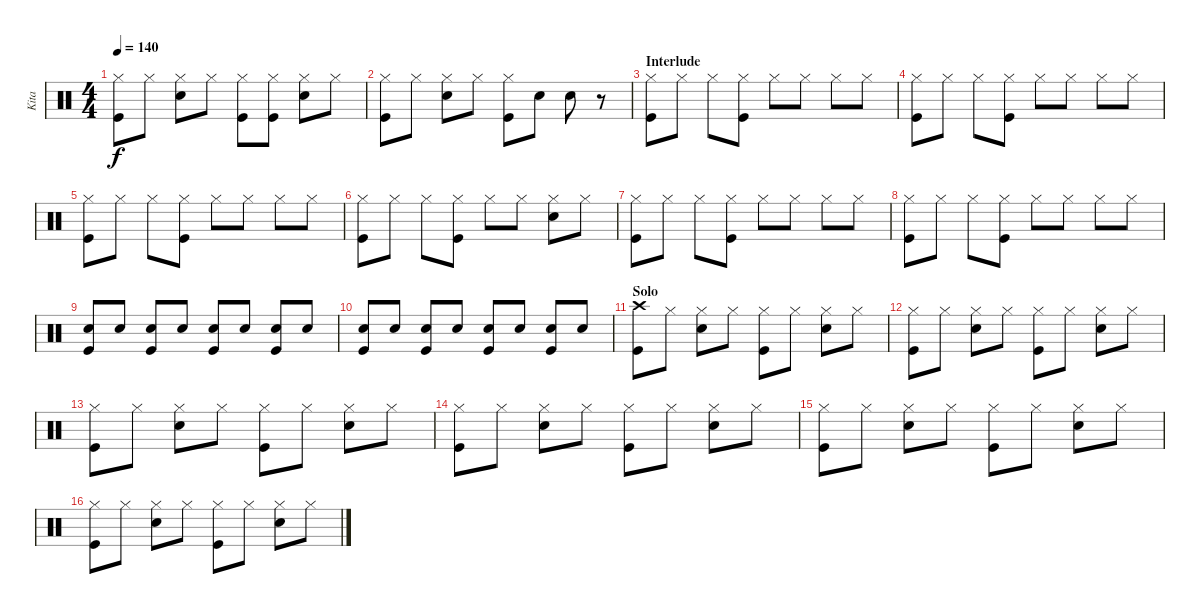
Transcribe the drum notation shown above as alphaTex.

\track ("Kita" "Kita") {instrument percussion}
\staff {score}
\articulation defaults
\ts (4 4)
\tempo 140
\clef neutral
\ks c
("Hi-Hat (closed)" "Kick (hit)").8{dy f} "Hi-Hat (closed)".8 ("Hi-Hat (closed)" "Snare (hit) 2").8 "Hi-Hat (closed)".8 ("Hi-Hat (closed)" "Kick (hit)").8 ("Hi-Hat (closed)" "Kick (hit)").8 ("Hi-Hat (closed)" "Snare (hit) 2").8 "Hi-Hat (closed)".8 |
("Hi-Hat (closed)" "Kick (hit)").8 "Hi-Hat (closed)".8 ("Hi-Hat (closed)" "Snare (hit) 2").8 "Hi-Hat (closed)".8 ("Hi-Hat (closed)" "Kick (hit)").8 "Snare (hit) 2".8 "Snare (hit) 2".8 r.8 |
\section ("" "Interlude")
("Hi-Hat (closed)" "Kick (hit)").8 "Hi-Hat (closed)".8 "Hi-Hat (closed)".8 ("Hi-Hat (closed)" "Kick (hit)").8 "Hi-Hat (closed)".8 "Hi-Hat (closed)".8 "Hi-Hat (closed)".8 "Hi-Hat (closed)".8 |
("Hi-Hat (closed)" "Kick (hit)").8 "Hi-Hat (closed)".8 "Hi-Hat (closed)".8 ("Hi-Hat (closed)" "Kick (hit)").8 "Hi-Hat (closed)".8 "Hi-Hat (closed)".8 "Hi-Hat (closed)".8 "Hi-Hat (closed)".8 |
("Hi-Hat (closed)" "Kick (hit)").8 "Hi-Hat (closed)".8 "Hi-Hat (closed)".8 ("Hi-Hat (closed)" "Kick (hit)").8 "Hi-Hat (closed)".8 "Hi-Hat (closed)".8 "Hi-Hat (closed)".8 "Hi-Hat (closed)".8 |
("Hi-Hat (closed)" "Kick (hit)").8 "Hi-Hat (closed)".8 "Hi-Hat (closed)".8 ("Hi-Hat (closed)" "Kick (hit)").8 "Hi-Hat (closed)".8 "Hi-Hat (closed)".8 ("Hi-Hat (closed)" "Snare (hit) 2").8 "Hi-Hat (closed)".8 |
("Hi-Hat (closed)" "Kick (hit)").8 "Hi-Hat (closed)".8 "Hi-Hat (closed)".8 ("Hi-Hat (closed)" "Kick (hit)").8 "Hi-Hat (closed)".8 "Hi-Hat (closed)".8 "Hi-Hat (closed)".8 "Hi-Hat (closed)".8 |
("Hi-Hat (closed)" "Kick (hit)").8 "Hi-Hat (closed)".8 "Hi-Hat (closed)".8 ("Hi-Hat (closed)" "Kick (hit)").8 "Hi-Hat (closed)".8 "Hi-Hat (closed)".8 "Hi-Hat (closed)".8 "Hi-Hat (closed)".8 |
("Kick (hit)" "Snare (hit) 2").8 "Snare (hit) 2".8 ("Kick (hit)" "Snare (hit) 2").8 "Snare (hit) 2".8 ("Kick (hit)" "Snare (hit) 2").8 "Snare (hit) 2".8 ("Kick (hit)" "Snare (hit) 2").8 "Snare (hit) 2".8 |
("Kick (hit)" "Snare (hit) 2").8 "Snare (hit) 2".8 ("Kick (hit)" "Snare (hit) 2").8 "Snare (hit) 2".8 ("Kick (hit)" "Snare (hit) 2").8 "Snare (hit) 2".8 ("Kick (hit)" "Snare (hit) 2").8 "Snare (hit) 2".8 |
\section ("" "Solo")
("Crash high (hit)" "Kick (hit)").8 "Hi-Hat (closed)".8 ("Hi-Hat (closed)" "Snare (hit) 2").8 "Hi-Hat (closed)".8 ("Hi-Hat (closed)" "Kick (hit)").8 "Hi-Hat (closed)".8 ("Hi-Hat (closed)" "Snare (hit) 2").8 "Hi-Hat (closed)".8 |
("Hi-Hat (closed)" "Kick (hit)").8 "Hi-Hat (closed)".8 ("Hi-Hat (closed)" "Snare (hit) 2").8 "Hi-Hat (closed)".8 ("Hi-Hat (closed)" "Kick (hit)").8 "Hi-Hat (closed)".8 ("Hi-Hat (closed)" "Snare (hit) 2").8 "Hi-Hat (closed)".8 |
("Hi-Hat (closed)" "Kick (hit)").8 "Hi-Hat (closed)".8 ("Hi-Hat (closed)" "Snare (hit) 2").8 "Hi-Hat (closed)".8 ("Hi-Hat (closed)" "Kick (hit)").8 "Hi-Hat (closed)".8 ("Hi-Hat (closed)" "Snare (hit) 2").8 "Hi-Hat (closed)".8 |
("Hi-Hat (closed)" "Kick (hit)").8 "Hi-Hat (closed)".8 ("Hi-Hat (closed)" "Snare (hit) 2").8 "Hi-Hat (closed)".8 ("Hi-Hat (closed)" "Kick (hit)").8 "Hi-Hat (closed)".8 ("Hi-Hat (closed)" "Snare (hit) 2").8 "Hi-Hat (closed)".8 |
("Hi-Hat (closed)" "Kick (hit)").8 "Hi-Hat (closed)".8 ("Hi-Hat (closed)" "Snare (hit) 2").8 "Hi-Hat (closed)".8 ("Hi-Hat (closed)" "Kick (hit)").8 "Hi-Hat (closed)".8 ("Hi-Hat (closed)" "Snare (hit) 2").8 "Hi-Hat (closed)".8 |
("Hi-Hat (closed)" "Kick (hit)").8 "Hi-Hat (closed)".8 ("Hi-Hat (closed)" "Snare (hit) 2").8 "Hi-Hat (closed)".8 ("Hi-Hat (closed)" "Kick (hit)").8 "Hi-Hat (closed)".8 ("Hi-Hat (closed)" "Snare (hit) 2").8 "Hi-Hat (closed)".8
